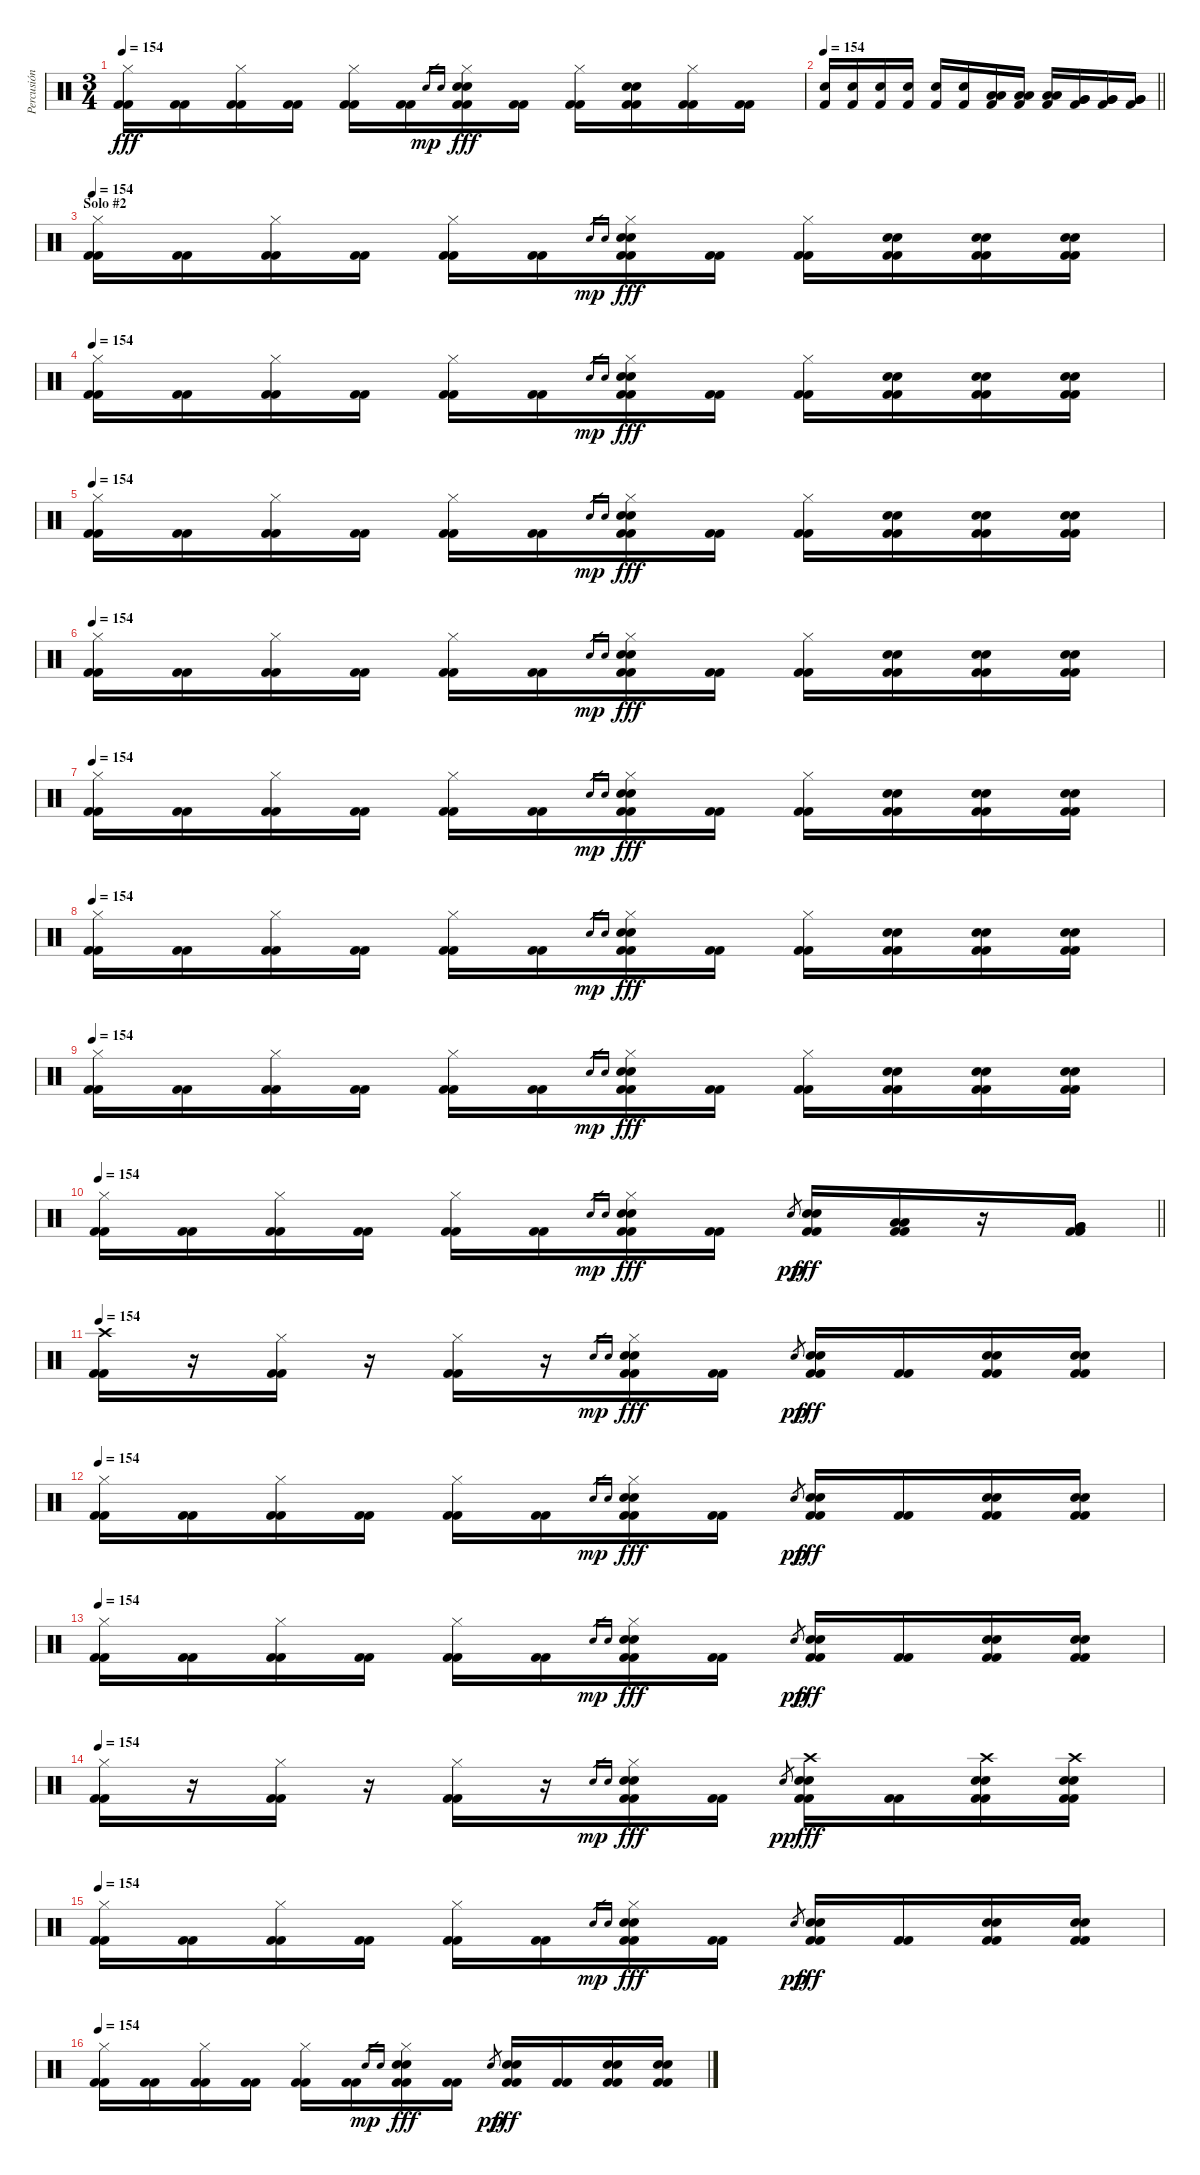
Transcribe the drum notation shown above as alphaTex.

\track ("Percusión" "Percusión") {instrument percussion}
\staff {score}
\articulation defaults
\ts (3 4)
\tempo 154
\clef neutral
\ks c
("Hi-Hat (closed)" "Kick (hit) 2" "Kick (hit) 2").16{dy fff} ("Kick (hit) 2" "Kick (hit) 2").16 ("Hi-Hat (closed)" "Kick (hit) 2" "Kick (hit) 2").16 ("Kick (hit) 2" "Kick (hit) 2").16 ("Hi-Hat (closed)" "Kick (hit) 2" "Kick (hit) 2").16 ("Kick (hit) 2" "Kick (hit) 2").16 "Electric Snare (hit)".16{gr dy mp} "Snare (hit) 2".16{gr} ("Hi-Hat (closed)" "Electric Snare (hit)" "Snare (hit) 2" "Kick (hit) 2" "Kick (hit) 2").16{dy fff} ("Kick (hit) 2" "Kick (hit) 2").16 ("Hi-Hat (closed)" "Kick (hit) 2" "Kick (hit) 2").16 ("Electric Snare (hit)" "Snare (hit) 2" "Kick (hit) 2" "Kick (hit) 2").16 ("Hi-Hat (closed)" "Kick (hit) 2" "Kick (hit) 2").16 ("Kick (hit) 2" "Kick (hit) 2").16 |
\tempo 154
\barLineRight lightlight
("Snare (hit) 2" "Kick (hit) 2").16 ("Snare (hit) 2" "Kick (hit) 2").16 ("Snare (hit) 2" "Kick (hit) 2").16 ("Snare (hit) 2" "Kick (hit) 2").16 ("Snare (hit) 2" "Kick (hit) 2").16 ("Snare (hit) 2" "Kick (hit) 2").16 ("Low Tom (hit)" "Low Tom (hit)" "Kick (hit) 2").16 ("Low Tom (hit)" "Low Tom (hit)" "Kick (hit) 2").16 ("Low Tom (hit)" "Low Tom (hit)" "Kick (hit) 2").16 ("Very Low Tom (hit)" "Very Low Tom (hit)" "Kick (hit) 2").16 ("Very Low Tom (hit)" "Very Low Tom (hit)" "Kick (hit) 2").16 ("Very Low Tom (hit)" "Very Low Tom (hit)" "Kick (hit) 2").16 |
\section ("" "Solo #2")
\tempo 154
("Hi-Hat (closed)" "Kick (hit) 2" "Kick (hit) 2").16 ("Kick (hit) 2" "Kick (hit) 2").16 ("Hi-Hat (closed)" "Kick (hit) 2" "Kick (hit) 2").16 ("Kick (hit) 2" "Kick (hit) 2").16 ("Hi-Hat (closed)" "Kick (hit) 2" "Kick (hit) 2").16 ("Kick (hit) 2" "Kick (hit) 2").16 "Electric Snare (hit)".16{gr dy mp} "Snare (hit) 2".16{gr} ("Hi-Hat (closed)" "Electric Snare (hit)" "Snare (hit) 2" "Kick (hit) 2" "Kick (hit) 2").16{dy fff} ("Kick (hit) 2" "Kick (hit) 2").16 ("Hi-Hat (closed)" "Kick (hit) 2" "Kick (hit) 2").16 ("Electric Snare (hit)" "Snare (hit) 2" "Kick (hit) 2" "Kick (hit) 2").16 ("Electric Snare (hit)" "Snare (hit) 2" "Kick (hit) 2" "Kick (hit) 2").16 ("Electric Snare (hit)" "Snare (hit) 2" "Kick (hit) 2" "Kick (hit) 2").16 |
\tempo 154
("Hi-Hat (closed)" "Kick (hit) 2" "Kick (hit) 2").16 ("Kick (hit) 2" "Kick (hit) 2").16 ("Hi-Hat (closed)" "Kick (hit) 2" "Kick (hit) 2").16 ("Kick (hit) 2" "Kick (hit) 2").16 ("Hi-Hat (closed)" "Kick (hit) 2" "Kick (hit) 2").16 ("Kick (hit) 2" "Kick (hit) 2").16 "Electric Snare (hit)".16{gr dy mp} "Snare (hit) 2".16{gr} ("Hi-Hat (closed)" "Electric Snare (hit)" "Snare (hit) 2" "Kick (hit) 2" "Kick (hit) 2").16{dy fff} ("Kick (hit) 2" "Kick (hit) 2").16 ("Hi-Hat (closed)" "Kick (hit) 2" "Kick (hit) 2").16 ("Electric Snare (hit)" "Snare (hit) 2" "Kick (hit) 2" "Kick (hit) 2").16 ("Electric Snare (hit)" "Snare (hit) 2" "Kick (hit) 2" "Kick (hit) 2").16 ("Electric Snare (hit)" "Snare (hit) 2" "Kick (hit) 2" "Kick (hit) 2").16 |
\tempo 154
("Hi-Hat (closed)" "Kick (hit) 2" "Kick (hit) 2").16 ("Kick (hit) 2" "Kick (hit) 2").16 ("Hi-Hat (closed)" "Kick (hit) 2" "Kick (hit) 2").16 ("Kick (hit) 2" "Kick (hit) 2").16 ("Hi-Hat (closed)" "Kick (hit) 2" "Kick (hit) 2").16 ("Kick (hit) 2" "Kick (hit) 2").16 "Electric Snare (hit)".16{gr dy mp} "Snare (hit) 2".16{gr} ("Hi-Hat (closed)" "Electric Snare (hit)" "Snare (hit) 2" "Kick (hit) 2" "Kick (hit) 2").16{dy fff} ("Kick (hit) 2" "Kick (hit) 2").16 ("Hi-Hat (closed)" "Kick (hit) 2" "Kick (hit) 2").16 ("Electric Snare (hit)" "Snare (hit) 2" "Kick (hit) 2" "Kick (hit) 2").16 ("Electric Snare (hit)" "Snare (hit) 2" "Kick (hit) 2" "Kick (hit) 2").16 ("Electric Snare (hit)" "Snare (hit) 2" "Kick (hit) 2" "Kick (hit) 2").16 |
\tempo 154
("Hi-Hat (closed)" "Kick (hit) 2" "Kick (hit) 2").16 ("Kick (hit) 2" "Kick (hit) 2").16 ("Hi-Hat (closed)" "Kick (hit) 2" "Kick (hit) 2").16 ("Kick (hit) 2" "Kick (hit) 2").16 ("Hi-Hat (closed)" "Kick (hit) 2" "Kick (hit) 2").16 ("Kick (hit) 2" "Kick (hit) 2").16 "Electric Snare (hit)".16{gr dy mp} "Snare (hit) 2".16{gr} ("Hi-Hat (closed)" "Electric Snare (hit)" "Snare (hit) 2" "Kick (hit) 2" "Kick (hit) 2").16{dy fff} ("Kick (hit) 2" "Kick (hit) 2").16 ("Hi-Hat (closed)" "Kick (hit) 2" "Kick (hit) 2").16 ("Electric Snare (hit)" "Snare (hit) 2" "Kick (hit) 2" "Kick (hit) 2").16 ("Electric Snare (hit)" "Snare (hit) 2" "Kick (hit) 2" "Kick (hit) 2").16 ("Electric Snare (hit)" "Snare (hit) 2" "Kick (hit) 2" "Kick (hit) 2").16 |
\tempo 154
("Hi-Hat (closed)" "Kick (hit) 2" "Kick (hit) 2").16 ("Kick (hit) 2" "Kick (hit) 2").16 ("Hi-Hat (closed)" "Kick (hit) 2" "Kick (hit) 2").16 ("Kick (hit) 2" "Kick (hit) 2").16 ("Hi-Hat (closed)" "Kick (hit) 2" "Kick (hit) 2").16 ("Kick (hit) 2" "Kick (hit) 2").16 "Electric Snare (hit)".16{gr dy mp} "Snare (hit) 2".16{gr} ("Hi-Hat (closed)" "Electric Snare (hit)" "Snare (hit) 2" "Kick (hit) 2" "Kick (hit) 2").16{dy fff} ("Kick (hit) 2" "Kick (hit) 2").16 ("Hi-Hat (closed)" "Kick (hit) 2" "Kick (hit) 2").16 ("Electric Snare (hit)" "Snare (hit) 2" "Kick (hit) 2" "Kick (hit) 2").16 ("Electric Snare (hit)" "Snare (hit) 2" "Kick (hit) 2" "Kick (hit) 2").16 ("Electric Snare (hit)" "Snare (hit) 2" "Kick (hit) 2" "Kick (hit) 2").16 |
\tempo 154
("Hi-Hat (closed)" "Kick (hit) 2" "Kick (hit) 2").16 ("Kick (hit) 2" "Kick (hit) 2").16 ("Hi-Hat (closed)" "Kick (hit) 2" "Kick (hit) 2").16 ("Kick (hit) 2" "Kick (hit) 2").16 ("Hi-Hat (closed)" "Kick (hit) 2" "Kick (hit) 2").16 ("Kick (hit) 2" "Kick (hit) 2").16 "Electric Snare (hit)".16{gr dy mp} "Snare (hit) 2".16{gr} ("Hi-Hat (closed)" "Electric Snare (hit)" "Snare (hit) 2" "Kick (hit) 2" "Kick (hit) 2").16{dy fff} ("Kick (hit) 2" "Kick (hit) 2").16 ("Hi-Hat (closed)" "Kick (hit) 2" "Kick (hit) 2").16 ("Electric Snare (hit)" "Snare (hit) 2" "Kick (hit) 2" "Kick (hit) 2").16 ("Electric Snare (hit)" "Snare (hit) 2" "Kick (hit) 2" "Kick (hit) 2").16 ("Electric Snare (hit)" "Snare (hit) 2" "Kick (hit) 2" "Kick (hit) 2").16 |
\tempo 154
("Hi-Hat (closed)" "Kick (hit) 2" "Kick (hit) 2").16 ("Kick (hit) 2" "Kick (hit) 2").16 ("Hi-Hat (closed)" "Kick (hit) 2" "Kick (hit) 2").16 ("Kick (hit) 2" "Kick (hit) 2").16 ("Hi-Hat (closed)" "Kick (hit) 2" "Kick (hit) 2").16 ("Kick (hit) 2" "Kick (hit) 2").16 "Electric Snare (hit)".16{gr dy mp} "Snare (hit) 2".16{gr} ("Hi-Hat (closed)" "Electric Snare (hit)" "Snare (hit) 2" "Kick (hit) 2" "Kick (hit) 2").16{dy fff} ("Kick (hit) 2" "Kick (hit) 2").16 ("Hi-Hat (closed)" "Kick (hit) 2" "Kick (hit) 2").16 ("Electric Snare (hit)" "Snare (hit) 2" "Kick (hit) 2" "Kick (hit) 2").16 ("Electric Snare (hit)" "Snare (hit) 2" "Kick (hit) 2" "Kick (hit) 2").16 ("Electric Snare (hit)" "Snare (hit) 2" "Kick (hit) 2" "Kick (hit) 2").16 |
\tempo 154
\barLineRight lightlight
("Hi-Hat (closed)" "Kick (hit) 2" "Kick (hit) 2").16 ("Kick (hit) 2" "Kick (hit) 2").16 ("Hi-Hat (closed)" "Kick (hit) 2" "Kick (hit) 2").16 ("Kick (hit) 2" "Kick (hit) 2").16 ("Hi-Hat (closed)" "Kick (hit) 2" "Kick (hit) 2").16 ("Kick (hit) 2" "Kick (hit) 2").16 "Electric Snare (hit)".16{gr dy mp} "Snare (hit) 2".16{gr} ("Hi-Hat (closed)" "Electric Snare (hit)" "Snare (hit) 2" "Kick (hit) 2" "Kick (hit) 2").16{dy fff} ("Kick (hit) 2" "Kick (hit) 2").16 "Snare (hit) 2".8{gr dy pp} ("Electric Snare (hit)" "Snare (hit) 2" "Kick (hit) 2" "Kick (hit) 2").16{dy fff} ("Low Tom (hit)" "Low Tom (hit)" "Kick (hit) 2" "Kick (hit) 2").16 r.16 ("Very Low Tom (hit)" "Very Low Tom (hit)" "Kick (hit) 2" "Kick (hit) 2").16 |
\tempo 154
("Crash high (hit)" "Kick (hit) 2" "Kick (hit) 2").16 r.16 ("Hi-Hat (closed)" "Kick (hit) 2" "Kick (hit) 2").16 r.16 ("Hi-Hat (closed)" "Kick (hit) 2" "Kick (hit) 2").16 r.16 "Electric Snare (hit)".16{gr dy mp} "Snare (hit) 2".16{gr} ("Hi-Hat (closed)" "Electric Snare (hit)" "Snare (hit) 2" "Kick (hit) 2" "Kick (hit) 2").16{dy fff} ("Kick (hit) 2" "Kick (hit) 2").16 "Snare (hit) 2".8{gr dy pp} ("Electric Snare (hit)" "Snare (hit) 2" "Kick (hit) 2" "Kick (hit) 2").16{dy fff} ("Kick (hit) 2" "Kick (hit) 2").16 ("Electric Snare (hit)" "Snare (hit) 2" "Kick (hit) 2" "Kick (hit) 2").16 ("Electric Snare (hit)" "Snare (hit) 2" "Kick (hit) 2" "Kick (hit) 2").16 |
\tempo 154
("Hi-Hat (closed)" "Kick (hit) 2" "Kick (hit) 2").16 ("Kick (hit) 2" "Kick (hit) 2").16 ("Hi-Hat (closed)" "Kick (hit) 2" "Kick (hit) 2").16 ("Kick (hit) 2" "Kick (hit) 2").16 ("Hi-Hat (closed)" "Kick (hit) 2" "Kick (hit) 2").16 ("Kick (hit) 2" "Kick (hit) 2").16 "Electric Snare (hit)".16{gr dy mp} "Snare (hit) 2".16{gr} ("Hi-Hat (closed)" "Electric Snare (hit)" "Snare (hit) 2" "Kick (hit) 2" "Kick (hit) 2").16{dy fff} ("Kick (hit) 2" "Kick (hit) 2").16 "Snare (hit) 2".8{gr dy pp} ("Electric Snare (hit)" "Snare (hit) 2" "Kick (hit) 2" "Kick (hit) 2").16{dy fff} ("Kick (hit) 2" "Kick (hit) 2").16 ("Electric Snare (hit)" "Snare (hit) 2" "Kick (hit) 2" "Kick (hit) 2").16 ("Electric Snare (hit)" "Snare (hit) 2" "Kick (hit) 2" "Kick (hit) 2").16 |
\tempo 154
("Hi-Hat (closed)" "Kick (hit) 2" "Kick (hit) 2").16 ("Kick (hit) 2" "Kick (hit) 2").16 ("Hi-Hat (closed)" "Kick (hit) 2" "Kick (hit) 2").16 ("Kick (hit) 2" "Kick (hit) 2").16 ("Hi-Hat (closed)" "Kick (hit) 2" "Kick (hit) 2").16 ("Kick (hit) 2" "Kick (hit) 2").16 "Electric Snare (hit)".16{gr dy mp} "Snare (hit) 2".16{gr} ("Hi-Hat (closed)" "Electric Snare (hit)" "Snare (hit) 2" "Kick (hit) 2" "Kick (hit) 2").16{dy fff} ("Kick (hit) 2" "Kick (hit) 2").16 "Snare (hit) 2".8{gr dy pp} ("Electric Snare (hit)" "Snare (hit) 2" "Kick (hit) 2" "Kick (hit) 2").16{dy fff} ("Kick (hit) 2" "Kick (hit) 2").16 ("Electric Snare (hit)" "Snare (hit) 2" "Kick (hit) 2" "Kick (hit) 2").16 ("Electric Snare (hit)" "Snare (hit) 2" "Kick (hit) 2" "Kick (hit) 2").16 |
\tempo 154
("Hi-Hat (closed)" "Kick (hit) 2" "Kick (hit) 2").16 r.16 ("Hi-Hat (closed)" "Kick (hit) 2" "Kick (hit) 2").16 r.16 ("Hi-Hat (closed)" "Kick (hit) 2" "Kick (hit) 2").16 r.16 "Electric Snare (hit)".16{gr dy mp} "Snare (hit) 2".16{gr} ("Hi-Hat (closed)" "Electric Snare (hit)" "Snare (hit) 2" "Kick (hit) 2" "Kick (hit) 2").16{dy fff} ("Kick (hit) 2" "Kick (hit) 2").16 "Snare (hit) 2".8{gr dy pp} ("Crash high (hit)" "Electric Snare (hit)" "Snare (hit) 2" "Kick (hit) 2" "Kick (hit) 2").16{dy fff} ("Kick (hit) 2" "Kick (hit) 2").16 ("Crash high (hit)" "Electric Snare (hit)" "Snare (hit) 2" "Kick (hit) 2" "Kick (hit) 2").16 ("Crash high (hit)" "Electric Snare (hit)" "Snare (hit) 2" "Kick (hit) 2" "Kick (hit) 2").16 |
\tempo 154
("Hi-Hat (closed)" "Kick (hit) 2" "Kick (hit) 2").16 ("Kick (hit) 2" "Kick (hit) 2").16 ("Hi-Hat (closed)" "Kick (hit) 2" "Kick (hit) 2").16 ("Kick (hit) 2" "Kick (hit) 2").16 ("Hi-Hat (closed)" "Kick (hit) 2" "Kick (hit) 2").16 ("Kick (hit) 2" "Kick (hit) 2").16 "Electric Snare (hit)".16{gr dy mp} "Snare (hit) 2".16{gr} ("Hi-Hat (closed)" "Electric Snare (hit)" "Snare (hit) 2" "Kick (hit) 2" "Kick (hit) 2").16{dy fff} ("Kick (hit) 2" "Kick (hit) 2").16 "Snare (hit) 2".8{gr dy pp} ("Electric Snare (hit)" "Snare (hit) 2" "Kick (hit) 2" "Kick (hit) 2").16{dy fff} ("Kick (hit) 2" "Kick (hit) 2").16 ("Electric Snare (hit)" "Snare (hit) 2" "Kick (hit) 2" "Kick (hit) 2").16 ("Electric Snare (hit)" "Snare (hit) 2" "Kick (hit) 2" "Kick (hit) 2").16 |
\tempo 154
("Hi-Hat (closed)" "Kick (hit) 2" "Kick (hit) 2").16 ("Kick (hit) 2" "Kick (hit) 2").16 ("Hi-Hat (closed)" "Kick (hit) 2" "Kick (hit) 2").16 ("Kick (hit) 2" "Kick (hit) 2").16 ("Hi-Hat (closed)" "Kick (hit) 2" "Kick (hit) 2").16 ("Kick (hit) 2" "Kick (hit) 2").16 "Electric Snare (hit)".16{gr dy mp} "Snare (hit) 2".16{gr} ("Hi-Hat (closed)" "Electric Snare (hit)" "Snare (hit) 2" "Kick (hit) 2" "Kick (hit) 2").16{dy fff} ("Kick (hit) 2" "Kick (hit) 2").16 "Snare (hit) 2".8{gr dy pp} ("Electric Snare (hit)" "Snare (hit) 2" "Kick (hit) 2" "Kick (hit) 2").16{dy fff} ("Kick (hit) 2" "Kick (hit) 2").16 ("Electric Snare (hit)" "Snare (hit) 2" "Kick (hit) 2" "Kick (hit) 2").16 ("Electric Snare (hit)" "Snare (hit) 2" "Kick (hit) 2" "Kick (hit) 2").16
